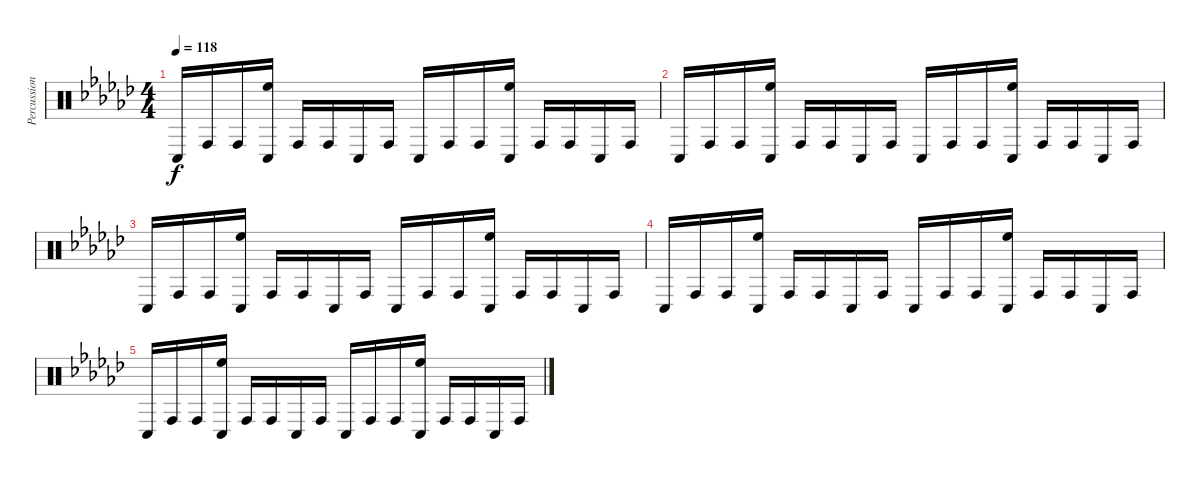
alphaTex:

\track ("Percussions 2" "Percussion") {instrument percussion}
\staff {score}
\articulation defaults
\ts (4 4)
\tempo 118
\clef neutral
\ks ebminor "Conga low (hit)".16{dy f} "Conga high (hit)".16 "Conga high (hit)".16
("Conga low (hit)" "High Floor Tom (hit)").16 "Conga high (hit)".16 "Conga high (hit)".16 "Conga low (hit)".16 "Conga high (hit)".16 "Conga low (hit)".16 "Conga high (hit)".16 "Conga high (hit)".16 ("Conga low (hit)" "High Floor Tom (hit)").16 "Conga high (hit)".16 "Conga high (hit)".16 "Conga low (hit)".16 "Conga high (hit)".16 |
"Conga low (hit)".16 "Conga high (hit)".16 "Conga high (hit)".16 ("Conga low (hit)" "High Floor Tom (hit)").16 "Conga high (hit)".16 "Conga high (hit)".16 "Conga low (hit)".16 "Conga high (hit)".16 "Conga low (hit)".16 "Conga high (hit)".16 "Conga high (hit)".16 ("Conga low (hit)" "High Floor Tom (hit)").16 "Conga high (hit)".16 "Conga high (hit)".16 "Conga low (hit)".16 "Conga high (hit)".16 |
"Conga low (hit)".16 "Conga high (hit)".16 "Conga high (hit)".16 ("Conga low (hit)" "High Floor Tom (hit)").16 "Conga high (hit)".16 "Conga high (hit)".16 "Conga low (hit)".16 "Conga high (hit)".16 "Conga low (hit)".16 "Conga high (hit)".16 "Conga high (hit)".16 ("Conga low (hit)" "High Floor Tom (hit)").16 "Conga high (hit)".16 "Conga high (hit)".16 "Conga low (hit)".16 "Conga high (hit)".16 |
"Conga low (hit)".16 "Conga high (hit)".16 "Conga high (hit)".16 ("Conga low (hit)" "High Floor Tom (hit)").16 "Conga high (hit)".16 "Conga high (hit)".16 "Conga low (hit)".16 "Conga high (hit)".16 "Conga low (hit)".16 "Conga high (hit)".16 "Conga high (hit)".16 ("Conga low (hit)" "High Floor Tom (hit)").16 "Conga high (hit)".16 "Conga high (hit)".16 "Conga low (hit)".16 "Conga high (hit)".16 |
"Conga low (hit)".16 "Conga high (hit)".16 "Conga high (hit)".16 ("Conga low (hit)" "High Floor Tom (hit)").16 "Conga high (hit)".16 "Conga high (hit)".16 "Conga low (hit)".16 "Conga high (hit)".16 "Conga low (hit)".16 "Conga high (hit)".16 "Conga high (hit)".16 ("Conga low (hit)" "High Floor Tom (hit)").16 "Conga high (hit)".16 "Conga high (hit)".16 "Conga low (hit)".16 "Conga high (hit)".16
